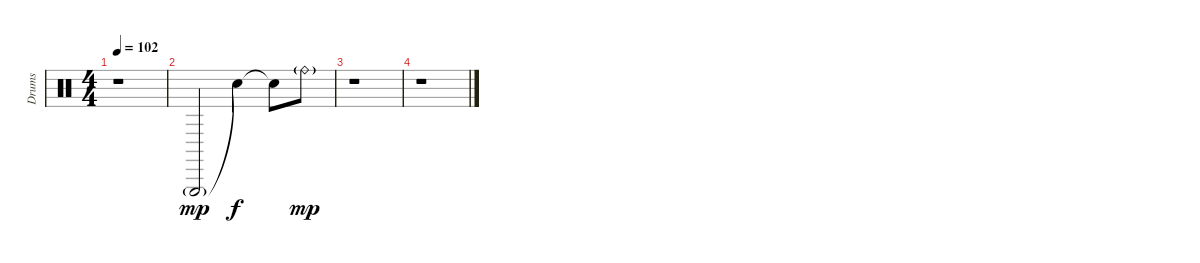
\track ("Drums" "Drums") {instrument percussion}
\staff {score}
\articulation defaults
\ts (4 4)
\tempo 102
\clef neutral
\ks c
r.1{dy f} |
"Triangle (hit)"{g}.2{dy mp} "Snare (hit)"{t}.4{dy f} "Snare (hit)"{t}.8 "Ride (bell)"{g}.8{dy mp} |
r.1 |
r.1
